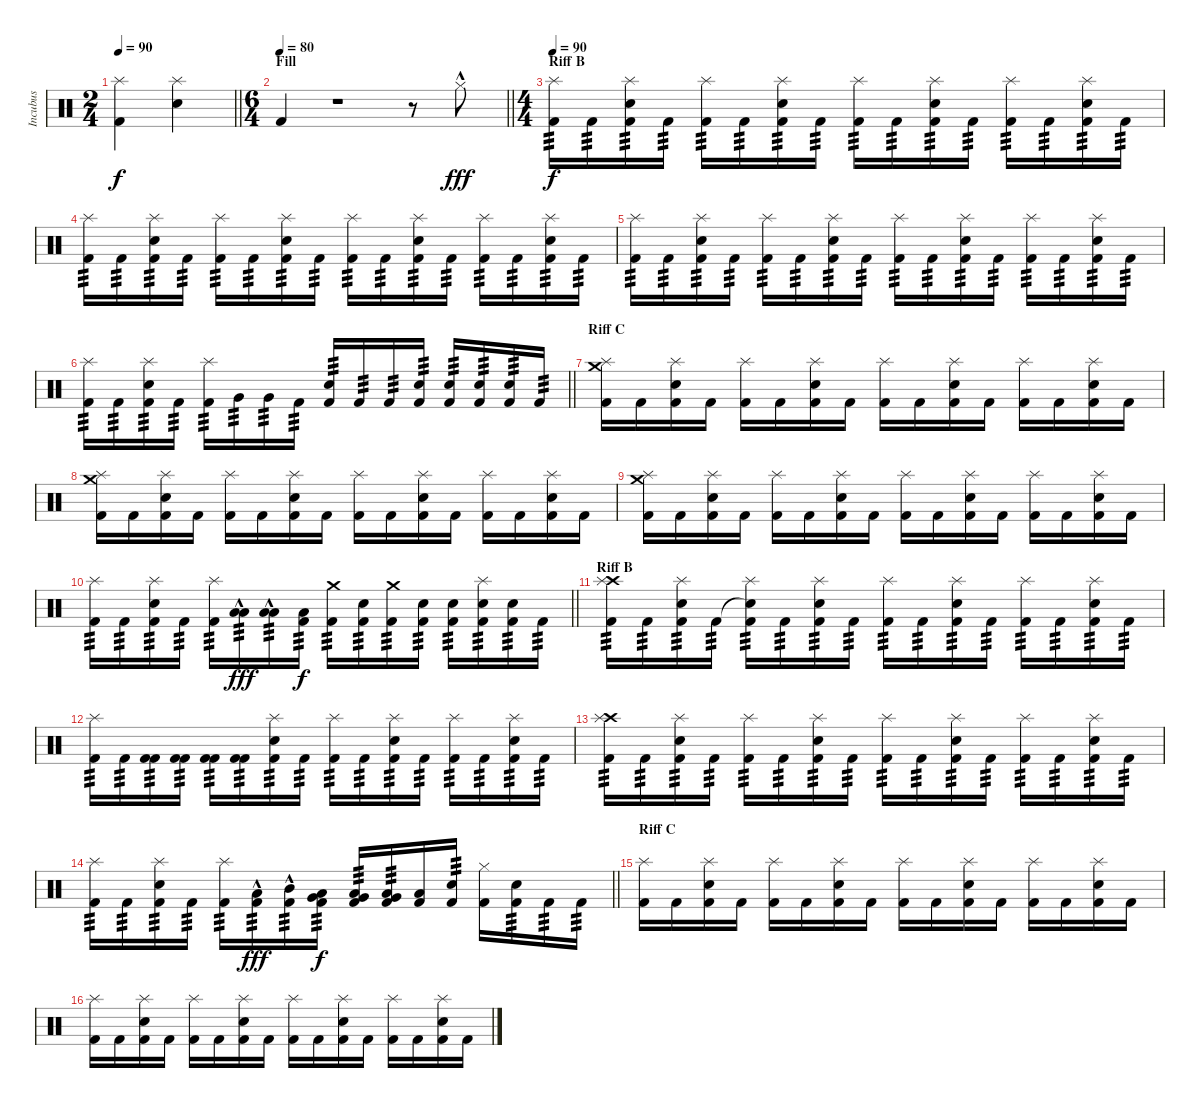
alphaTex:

\track ("Incubus" "Incubus") {instrument percussion}
\staff {score}
\articulation defaults
\ts (2 4)
\tempo 90
\clef neutral
\barLineRight lightlight
\ks c
("Splash (hit)" "Kick (hit) 2").4{dy f} ("Splash (hit)" "Snare (hit) 2").4 |
\ts (6 4)
\section ("" "Fill")
\tempo 80
\barLineRight lightlight "Kick (hit) 2".4
r.1 r.8 "Hi-Hat (closed)"{hac}.8{dy fff} |
\ts (4 4)
\section ("" "Riff B")
\tempo 90
("Splash (hit)" "Kick (hit) 2").16{tp 3 dy f} "Kick (hit) 2".16{tp 3} ("Splash (hit)" "Snare (hit) 2" "Kick (hit) 2").16{tp 3} "Kick (hit) 2".16{tp 3} ("Splash (hit)" "Kick (hit) 2").16{tp 3} "Kick (hit) 2".16{tp 3} ("Splash (hit)" "Snare (hit) 2" "Kick (hit) 2").16{tp 3} "Kick (hit) 2".16{tp 3} ("Splash (hit)" "Kick (hit) 2").16{tp 3} "Kick (hit) 2".16{tp 3} ("Splash (hit)" "Snare (hit) 2" "Kick (hit) 2").16{tp 3} "Kick (hit) 2".16{tp 3} ("Splash (hit)" "Kick (hit) 2").16{tp 3} "Kick (hit) 2".16{tp 3} ("Splash (hit)" "Snare (hit) 2" "Kick (hit) 2").16{tp 3} "Kick (hit) 2".16{tp 3} |
("Splash (hit)" "Kick (hit) 2").16{tp 3} "Kick (hit) 2".16{tp 3} ("Splash (hit)" "Snare (hit) 2" "Kick (hit) 2").16{tp 3} "Kick (hit) 2".16{tp 3} ("Splash (hit)" "Kick (hit) 2").16{tp 3} "Kick (hit) 2".16{tp 3} ("Splash (hit)" "Snare (hit) 2" "Kick (hit) 2").16{tp 3} "Kick (hit) 2".16{tp 3} ("Splash (hit)" "Kick (hit) 2").16{tp 3} "Kick (hit) 2".16{tp 3} ("Splash (hit)" "Snare (hit) 2" "Kick (hit) 2").16{tp 3} "Kick (hit) 2".16{tp 3} ("Splash (hit)" "Kick (hit) 2").16{tp 3} "Kick (hit) 2".16{tp 3} ("Splash (hit)" "Snare (hit) 2" "Kick (hit) 2").16{tp 3} "Kick (hit) 2".16{tp 3} |
("Splash (hit)" "Kick (hit) 2").16{tp 3} "Kick (hit) 2".16{tp 3} ("Splash (hit)" "Snare (hit) 2" "Kick (hit) 2").16{tp 3} "Kick (hit) 2".16{tp 3} ("Splash (hit)" "Kick (hit) 2").16{tp 3} "Kick (hit) 2".16{tp 3} ("Splash (hit)" "Snare (hit) 2" "Kick (hit) 2").16{tp 3} "Kick (hit) 2".16{tp 3} ("Splash (hit)" "Kick (hit) 2").16{tp 3} "Kick (hit) 2".16{tp 3} ("Splash (hit)" "Snare (hit) 2" "Kick (hit) 2").16{tp 3} "Kick (hit) 2".16{tp 3} ("Splash (hit)" "Kick (hit) 2").16{tp 3} "Kick (hit) 2".16{tp 3} ("Splash (hit)" "Snare (hit) 2" "Kick (hit) 2").16{tp 3} "Kick (hit) 2".16{tp 3} |
\barLineRight lightlight
("Splash (hit)" "Kick (hit) 2").16{tp 3} "Kick (hit) 2".16{tp 3} ("Splash (hit)" "Snare (hit) 2" "Kick (hit) 2").16{tp 3} "Kick (hit) 2".16{tp 3} ("Splash (hit)" "Kick (hit) 2").16{tp 3} "Very Low Tom (hit)".16{tp 3} "Very Low Tom (hit)".16{tp 3} "Kick (hit) 2".16{tp 3} ("Snare (hit) 2" "Kick (hit) 2").16{tp 3} "Kick (hit) 2".16{tp 3} "Kick (hit) 2".16{tp 3} ("Snare (hit) 2" "Kick (hit) 2").16{tp 3} ("Snare (hit) 2" "Kick (hit) 2").16{tp 3} ("Snare (hit) 2" "Kick (hit) 2").16{tp 3} ("Snare (hit) 2" "Kick (hit) 2").16{tp 3} "Kick (hit) 2".16{tp 3} |
\section ("" "Riff C")
("Crash medium (hit)" "Splash (hit)" "Kick (hit) 2").16 "Kick (hit) 2".16 ("Splash (hit)" "Snare (hit) 2" "Kick (hit) 2").16 "Kick (hit) 2".16 ("Splash (hit)" "Kick (hit) 2").16 "Kick (hit) 2".16 ("Splash (hit)" "Snare (hit) 2" "Kick (hit) 2").16 "Kick (hit) 2".16 ("Splash (hit)" "Kick (hit) 2").16 "Kick (hit) 2".16 ("Splash (hit)" "Snare (hit) 2" "Kick (hit) 2").16 "Kick (hit) 2".16 ("Splash (hit)" "Kick (hit) 2").16 "Kick (hit) 2".16 ("Splash (hit)" "Snare (hit) 2" "Kick (hit) 2").16 "Kick (hit) 2".16 |
("Crash medium (hit)" "Splash (hit)" "Kick (hit) 2").16 "Kick (hit) 2".16 ("Splash (hit)" "Snare (hit) 2" "Kick (hit) 2").16 "Kick (hit) 2".16 ("Splash (hit)" "Kick (hit) 2").16 "Kick (hit) 2".16 ("Splash (hit)" "Snare (hit) 2" "Kick (hit) 2").16 "Kick (hit) 2".16 ("Splash (hit)" "Kick (hit) 2").16 "Kick (hit) 2".16 ("Splash (hit)" "Snare (hit) 2" "Kick (hit) 2").16 "Kick (hit) 2".16 ("Splash (hit)" "Kick (hit) 2").16 "Kick (hit) 2".16 ("Splash (hit)" "Snare (hit) 2" "Kick (hit) 2").16 "Kick (hit) 2".16 |
("Crash medium (hit)" "Splash (hit)" "Kick (hit) 2").16 "Kick (hit) 2".16 ("Splash (hit)" "Snare (hit) 2" "Kick (hit) 2").16 "Kick (hit) 2".16 ("Splash (hit)" "Kick (hit) 2").16 "Kick (hit) 2".16 ("Splash (hit)" "Snare (hit) 2" "Kick (hit) 2").16 "Kick (hit) 2".16 ("Splash (hit)" "Kick (hit) 2").16 "Kick (hit) 2".16 ("Splash (hit)" "Snare (hit) 2" "Kick (hit) 2").16 "Kick (hit) 2".16 ("Splash (hit)" "Kick (hit) 2").16 "Kick (hit) 2".16 ("Splash (hit)" "Snare (hit) 2" "Kick (hit) 2").16 "Kick (hit) 2".16 |
\barLineRight lightlight
("Splash (hit)" "Kick (hit) 2").16{tp 3} "Kick (hit) 2".16{tp 3} ("Splash (hit)" "Snare (hit) 2" "Kick (hit) 2").16{tp 3} "Kick (hit) 2".16{tp 3} ("Splash (hit)" "Kick (hit) 2").16{tp 3} ("Low Floor Tom (hit)" "Low Floor Tom (hit)"{hac}).16{tp 3 dy fff} ("Low Floor Tom (hit)" "Low Floor Tom (hit)"{hac}).16{tp 3} ("Low Floor Tom (hit)" "Kick (hit) 2").16{tp 3 dy f} ("Crash medium (hit)" "Kick (hit) 2").16{tp 3} ("Snare (hit) 2" "Kick (hit) 2").16{tp 3} ("Crash medium (hit)" "Kick (hit) 2").16{tp 3} ("Snare (hit) 2" "Kick (hit) 2").16{tp 3} ("Snare (hit) 2" "Kick (hit) 2").16{tp 3} ("Splash (hit)" "Snare (hit) 2" "Kick (hit) 2").16{tp 3} ("Snare (hit) 2" "Kick (hit) 2").16{tp 3} "Kick (hit) 2".16{tp 3} |
\section ("" "Riff B")
("Crash high (hit)" "Splash (hit)" "Kick (hit) 2").16{tp 3} "Kick (hit) 2".16{tp 3} ("Splash (hit)" "Snare (hit) 2" "Kick (hit) 2").16{tp 3} "Kick (hit) 2".16{tp 3} ("Snare (hit)"{t} "Splash (hit)" "Kick (hit) 2").16{tp 3} "Kick (hit) 2".16{tp 3} ("Splash (hit)" "Snare (hit) 2" "Kick (hit) 2").16{tp 3} "Kick (hit) 2".16{tp 3} ("Splash (hit)" "Kick (hit) 2").16{tp 3} "Kick (hit) 2".16{tp 3} ("Splash (hit)" "Snare (hit) 2" "Kick (hit) 2").16{tp 3} "Kick (hit) 2".16{tp 3} ("Splash (hit)" "Kick (hit) 2").16{tp 3} "Kick (hit) 2".16{tp 3} ("Splash (hit)" "Snare (hit) 2" "Kick (hit) 2").16{tp 3} "Kick (hit) 2".16{tp 3} |
("Splash (hit)" "Kick (hit) 2").16{tp 3} "Kick (hit) 2".16{tp 3} ("Kick (hit) 2" "Kick (hit) 2").16{tp 3} ("Kick (hit) 2" "Kick (hit) 2").16{tp 3} ("Kick (hit) 2" "Kick (hit) 2").16{tp 3} ("Kick (hit) 2" "Kick (hit) 2").16{tp 3} ("Splash (hit)" "Snare (hit) 2" "Kick (hit) 2").16{tp 3} "Kick (hit) 2".16{tp 3} ("Splash (hit)" "Kick (hit) 2").16{tp 3} "Kick (hit) 2".16{tp 3} ("Splash (hit)" "Snare (hit) 2" "Kick (hit) 2").16{tp 3} "Kick (hit) 2".16{tp 3} ("Splash (hit)" "Kick (hit) 2").16{tp 3} "Kick (hit) 2".16{tp 3} ("Splash (hit)" "Snare (hit) 2" "Kick (hit) 2").16{tp 3} "Kick (hit) 2".16{tp 3} |
("Crash high (hit)" "Splash (hit)" "Kick (hit) 2").16{tp 3} "Kick (hit) 2".16{tp 3} ("Splash (hit)" "Snare (hit) 2" "Kick (hit) 2").16{tp 3} "Kick (hit) 2".16{tp 3} ("Splash (hit)" "Kick (hit) 2").16{tp 3} "Kick (hit) 2".16{tp 3} ("Splash (hit)" "Snare (hit) 2" "Kick (hit) 2").16{tp 3} "Kick (hit) 2".16{tp 3} ("Splash (hit)" "Kick (hit) 2").16{tp 3} "Kick (hit) 2".16{tp 3} ("Splash (hit)" "Snare (hit) 2" "Kick (hit) 2").16{tp 3} "Kick (hit) 2".16{tp 3} ("Splash (hit)" "Kick (hit) 2").16{tp 3} "Kick (hit) 2".16{tp 3} ("Splash (hit)" "Snare (hit) 2" "Kick (hit) 2").16{tp 3} "Kick (hit) 2".16{tp 3} |
\barLineRight lightlight
("Splash (hit)" "Kick (hit) 2").16{tp 3} "Kick (hit) 2".16{tp 3} ("Splash (hit)" "Snare (hit) 2" "Kick (hit) 2").16{tp 3} "Kick (hit) 2".16{tp 3} ("Splash (hit)" "Kick (hit) 2").16{tp 3} ("Low Floor Tom (hit)" "Kick (hit) 2"{hac}).16{tp 3 dy fff} ("Mid Tom (hit)" "Kick (hit) 2"{hac}).16{tp 3} ("Low Floor Tom (hit)" "Very Low Tom (hit)" "Kick (hit) 2").16{tp 3 dy f} ("Low Floor Tom (hit)" "Very Low Tom (hit)" "Kick (hit) 2").16{tp 3} ("Low Floor Tom (hit)" "Very Low Tom (hit)" "Kick (hit) 2").16{tp 3} ("Low Floor Tom (hit)" "Kick (hit) 2").16 ("Snare (hit) 2" "Kick (hit) 2").16{tp 3} ("Hi-Hat (closed)" "Kick (hit) 2").16 ("Snare (hit) 2" "Kick (hit) 2").16{tp 3} "Kick (hit) 2".16{tp 3} "Kick (hit) 2".16{tp 3} |
\section ("" "Riff C")
("Splash (hit)" "Kick (hit) 2").16 "Kick (hit) 2".16 ("Splash (hit)" "Snare (hit) 2" "Kick (hit) 2").16 "Kick (hit) 2".16 ("Splash (hit)" "Kick (hit) 2").16 "Kick (hit) 2".16 ("Splash (hit)" "Snare (hit) 2" "Kick (hit) 2").16 "Kick (hit) 2".16 ("Splash (hit)" "Kick (hit) 2").16 "Kick (hit) 2".16 ("Splash (hit)" "Snare (hit) 2" "Kick (hit) 2").16 "Kick (hit) 2".16 ("Splash (hit)" "Kick (hit) 2").16 "Kick (hit) 2".16 ("Splash (hit)" "Snare (hit) 2" "Kick (hit) 2").16 "Kick (hit) 2".16 |
("Splash (hit)" "Kick (hit) 2").16 "Kick (hit) 2".16 ("Splash (hit)" "Snare (hit) 2" "Kick (hit) 2").16 "Kick (hit) 2".16 ("Splash (hit)" "Kick (hit) 2").16 "Kick (hit) 2".16 ("Splash (hit)" "Snare (hit) 2" "Kick (hit) 2").16 "Kick (hit) 2".16 ("Splash (hit)" "Kick (hit) 2").16 "Kick (hit) 2".16 ("Splash (hit)" "Snare (hit) 2" "Kick (hit) 2").16 "Kick (hit) 2".16 ("Splash (hit)" "Kick (hit) 2").16 "Kick (hit) 2".16 ("Splash (hit)" "Snare (hit) 2" "Kick (hit) 2").16 "Kick (hit) 2".16
